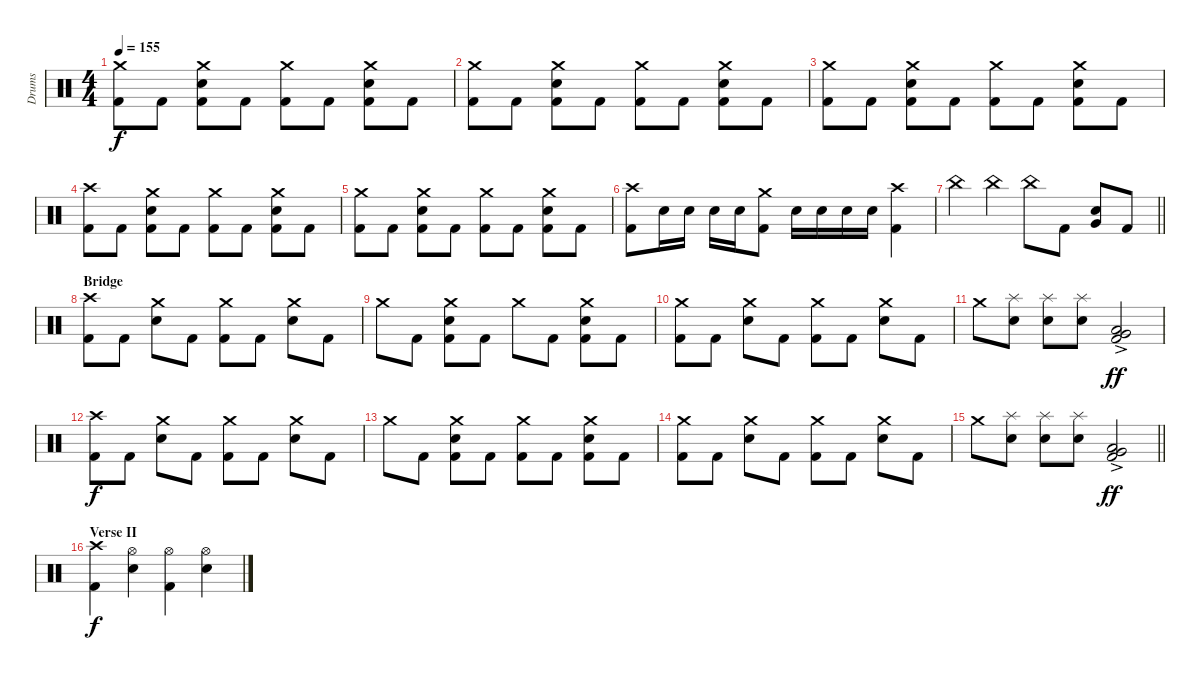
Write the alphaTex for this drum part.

\track ("Drums" "Drums") {instrument percussion}
\staff {score}
\articulation defaults
\ts (4 4)
\tempo 155
\clef neutral
\ks c
("Crash medium (hit)" "Kick (hit) 2").8{dy f} "Kick (hit) 2".8 ("Crash medium (hit)" "Electric Snare (hit)" "Kick (hit) 2").8 "Kick (hit) 2".8 ("Crash medium (hit)" "Kick (hit) 2").8 "Kick (hit) 2".8 ("Crash medium (hit)" "Electric Snare (hit)" "Kick (hit) 2").8 "Kick (hit) 2".8 |
("Crash medium (hit)" "Kick (hit) 2").8 "Kick (hit) 2".8 ("Crash medium (hit)" "Electric Snare (hit)" "Kick (hit) 2").8 "Kick (hit) 2".8 ("Crash medium (hit)" "Kick (hit) 2").8 "Kick (hit) 2".8 ("Crash medium (hit)" "Electric Snare (hit)" "Kick (hit) 2").8 "Kick (hit) 2".8 |
("Crash medium (hit)" "Kick (hit) 2").8 "Kick (hit) 2".8 ("Crash medium (hit)" "Electric Snare (hit)" "Kick (hit) 2").8 "Kick (hit) 2".8 ("Crash medium (hit)" "Kick (hit) 2").8 "Kick (hit) 2".8 ("Crash medium (hit)" "Electric Snare (hit)" "Kick (hit) 2").8 "Kick (hit) 2".8 |
("Crash high (hit)" "Kick (hit) 2").8 "Kick (hit) 2".8 ("Crash medium (hit)" "Electric Snare (hit)" "Kick (hit) 2").8 "Kick (hit) 2".8 ("Crash medium (hit)" "Kick (hit) 2").8 "Kick (hit) 2".8 ("Crash medium (hit)" "Electric Snare (hit)" "Kick (hit) 2").8 "Kick (hit) 2".8 |
("Crash medium (hit)" "Kick (hit) 2").8 "Kick (hit) 2".8 ("Crash medium (hit)" "Electric Snare (hit)" "Kick (hit) 2").8 "Kick (hit) 2".8 ("Crash medium (hit)" "Kick (hit) 2").8 "Kick (hit) 2".8 ("Crash medium (hit)" "Electric Snare (hit)" "Kick (hit) 2").8 "Kick (hit) 2".8 |
("Crash high (hit)" "Kick (hit) 2").8 "Electric Snare (hit)".16 "Electric Snare (hit)".16 "Electric Snare (hit)".16 "Electric Snare (hit)".16 ("Crash medium (hit)" "Kick (hit) 2").8 "Electric Snare (hit)".16 "Electric Snare (hit)".16 "Electric Snare (hit)".16 "Electric Snare (hit)".16 ("Crash high (hit)" "Kick (hit) 2").4 |
\barLineRight lightlight "China (hit)".4 "China (hit)".4 "China (hit)".8 "Kick (hit) 2".8
("Very Low Tom (hit)" "Electric Snare (hit)").8 "Kick (hit) 2".8 |
\section ("" "Bridge")
("Crash high (hit)" "Kick (hit) 2").8 "Kick (hit) 2".8 ("Crash medium (hit)" "Electric Snare (hit)").8 "Kick (hit) 2".8 ("Crash medium (hit)" "Kick (hit) 2").8 "Kick (hit) 2".8 ("Crash medium (hit)" "Electric Snare (hit)").8 "Kick (hit) 2".8 |
"Crash medium (hit)".8 "Kick (hit) 2".8 ("Crash medium (hit)" "Electric Snare (hit)" "Kick (hit) 2").8 "Kick (hit) 2".8 "Crash medium (hit)".8 "Kick (hit) 2".8 ("Crash medium (hit)" "Electric Snare (hit)" "Kick (hit) 2").8 "Kick (hit) 2".8 |
("Crash medium (hit)" "Kick (hit) 2").8 "Kick (hit) 2".8 ("Crash medium (hit)" "Electric Snare (hit)").8 "Kick (hit) 2".8 ("Crash medium (hit)" "Kick (hit) 2").8 "Kick (hit) 2".8 ("Crash medium (hit)" "Electric Snare (hit)").8 "Kick (hit) 2".8 |
"Crash medium (hit)".8 ("Splash (hit)" "Electric Snare (hit)").8 ("Splash (hit)" "Electric Snare (hit)").8 ("Splash (hit)" "Electric Snare (hit)").8 ("Very Low Tom (hit)"{ac} "Low Floor Tom (hit)"{ac} "Kick (hit) 2").2{dy ff} |
("Crash high (hit)" "Kick (hit) 2").8{dy f} "Kick (hit) 2".8 ("Crash medium (hit)" "Electric Snare (hit)").8 "Kick (hit) 2".8 ("Crash medium (hit)" "Kick (hit) 2").8 "Kick (hit) 2".8 ("Crash medium (hit)" "Electric Snare (hit)").8 "Kick (hit) 2".8 |
"Crash medium (hit)".8 "Kick (hit) 2".8 ("Crash medium (hit)" "Electric Snare (hit)" "Kick (hit) 2").8 "Kick (hit) 2".8 ("Crash medium (hit)" "Kick (hit) 2").8 "Kick (hit) 2".8 ("Crash medium (hit)" "Electric Snare (hit)" "Kick (hit) 2").8 "Kick (hit) 2".8 |
("Crash medium (hit)" "Kick (hit) 2").8 "Kick (hit) 2".8 ("Crash medium (hit)" "Electric Snare (hit)").8 "Kick (hit) 2".8 ("Crash medium (hit)" "Kick (hit) 2").8 "Kick (hit) 2".8 ("Crash medium (hit)" "Electric Snare (hit)").8 "Kick (hit) 2".8 |
\barLineRight lightlight "Crash medium (hit)".8
("Splash (hit)" "Electric Snare (hit)").8 ("Splash (hit)" "Electric Snare (hit)").8 ("Splash (hit)" "Electric Snare (hit)").8 ("Very Low Tom (hit)"{ac} "Low Floor Tom (hit)"{ac} "Kick (hit) 2").2{dy ff} |
\section ("" "Verse II")
("Crash high (hit)" "Kick (hit) 2").4{dy f} ("Hi-Hat (open)" "Electric Snare (hit)").4 ("Hi-Hat (open)" "Kick (hit) 2").4 ("Hi-Hat (open)" "Electric Snare (hit)").4
